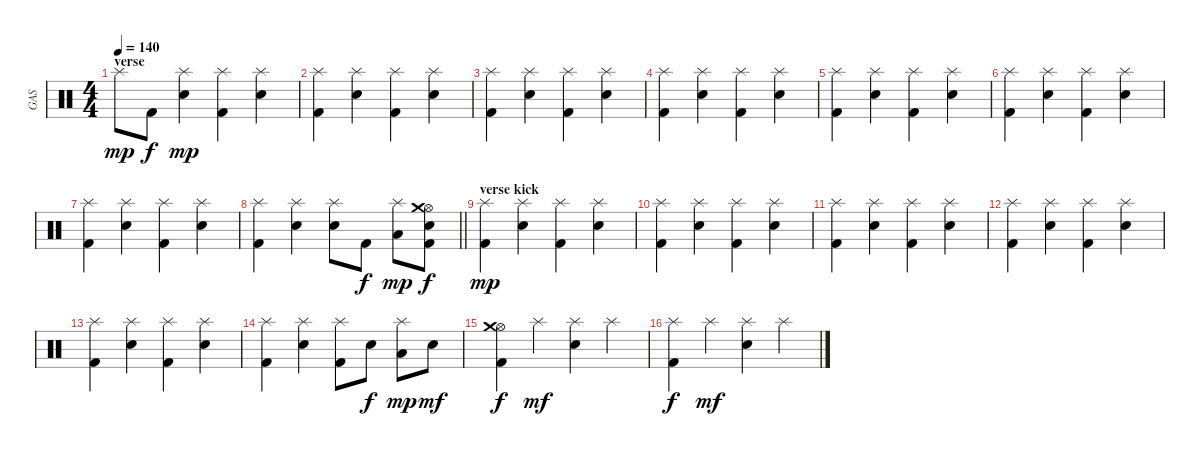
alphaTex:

\track ("GAS" "GAS") {instrument percussion}
\staff {score}
\articulation defaults
\ts (4 4)
\section ("" "verse")
\tempo 140
\clef neutral
\ks c "Splash (hit)".8{dy mp} "Kick (hit) 2".8{dy f}
("Electric Snare (hit)" "Splash (hit)").4{dy mp} ("Kick (hit) 2" "Splash (hit)").4 ("Electric Snare (hit)" "Splash (hit)").4 |
("Kick (hit) 2" "Splash (hit)").4 ("Electric Snare (hit)" "Splash (hit)").4 ("Kick (hit) 2" "Splash (hit)").4 ("Electric Snare (hit)" "Splash (hit)").4 |
("Kick (hit) 2" "Splash (hit)").4 ("Electric Snare (hit)" "Splash (hit)").4 ("Kick (hit) 2" "Splash (hit)").4 ("Electric Snare (hit)" "Splash (hit)").4 |
("Kick (hit) 2" "Splash (hit)").4 ("Electric Snare (hit)" "Splash (hit)").4 ("Kick (hit) 2" "Splash (hit)").4 ("Electric Snare (hit)" "Splash (hit)").4 |
("Kick (hit) 2" "Splash (hit)").4 ("Electric Snare (hit)" "Splash (hit)").4 ("Kick (hit) 2" "Splash (hit)").4 ("Electric Snare (hit)" "Splash (hit)").4 |
("Kick (hit) 2" "Splash (hit)").4 ("Electric Snare (hit)" "Splash (hit)").4 ("Kick (hit) 2" "Splash (hit)").4 ("Electric Snare (hit)" "Splash (hit)").4 |
("Kick (hit) 2" "Splash (hit)").4 ("Electric Snare (hit)" "Splash (hit)").4 ("Kick (hit) 2" "Splash (hit)").4 ("Electric Snare (hit)" "Splash (hit)").4 |
\barLineRight lightlight
("Kick (hit) 2" "Splash (hit)").4 ("Electric Snare (hit)" "Splash (hit)").4 ("Electric Snare (hit)" "Splash (hit)").8 "Kick (hit) 2".8{dy f} ("Low Tom (hit)" "Splash (hit)").8{dy mp} ("Kick (hit) 2" "Electric Snare (hit)" "Hi-Hat (open)" "Crash medium (hit)").8{dy f} |
\section ("" "verse kick")
("Kick (hit) 2" "Splash (hit)").4{dy mp} ("Electric Snare (hit)" "Splash (hit)").4 ("Kick (hit) 2" "Splash (hit)").4 ("Electric Snare (hit)" "Splash (hit)").4 |
("Kick (hit) 2" "Splash (hit)").4 ("Electric Snare (hit)" "Splash (hit)").4 ("Kick (hit) 2" "Splash (hit)").4 ("Electric Snare (hit)" "Splash (hit)").4 |
("Kick (hit) 2" "Splash (hit)").4 ("Electric Snare (hit)" "Splash (hit)").4 ("Kick (hit) 2" "Splash (hit)").4 ("Electric Snare (hit)" "Splash (hit)").4 |
("Kick (hit) 2" "Splash (hit)").4 ("Electric Snare (hit)" "Splash (hit)").4 ("Kick (hit) 2" "Splash (hit)").4 ("Electric Snare (hit)" "Splash (hit)").4 |
("Kick (hit) 2" "Splash (hit)").4 ("Electric Snare (hit)" "Splash (hit)").4 ("Kick (hit) 2" "Splash (hit)").4 ("Electric Snare (hit)" "Splash (hit)").4 |
("Kick (hit) 2" "Splash (hit)").4 ("Electric Snare (hit)" "Splash (hit)").4 ("Kick (hit) 2" "Splash (hit)").8 "Electric Snare (hit)".8{dy f} ("Low Tom (hit)" "Splash (hit)").8{dy mp} "Electric Snare (hit)".8{dy mf} |
("Kick (hit) 2" "Hi-Hat (open)" "Crash medium (hit)").4{dy f} "Splash (hit)".4{dy mf} ("Electric Snare (hit)" "Splash (hit)").4 "Splash (hit)".4 |
("Kick (hit) 2" "Splash (hit)").4{dy f} "Splash (hit)".4{dy mf} ("Electric Snare (hit)" "Splash (hit)").4 "Splash (hit)".4
